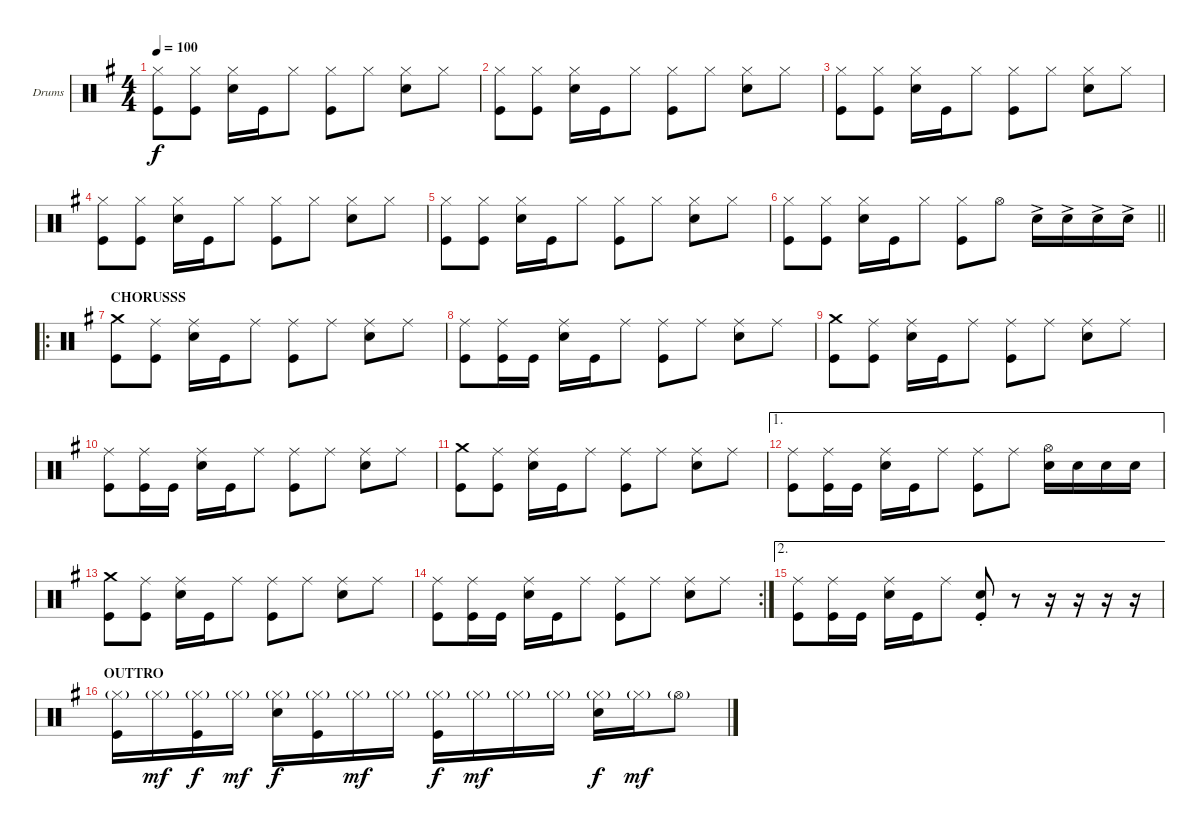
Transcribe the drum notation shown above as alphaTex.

\bracketExtendMode groupsimilarinstruments
\firstSystemTrackNameOrientation horizontal
\otherSystemsTrackNameOrientation horizontal
\track ("Drumkit" "Drums") {instrument percussion}
\staff {score}
\articulation defaults
\ts (4 4)
\tempo 100
\clef neutral
\ks eminor
("Hi-Hat (closed)" "Kick (hit)").8{dy f} ("Hi-Hat (closed)" "Kick (hit)").8 ("Hi-Hat (closed)" "Snare (hit) 2").16 "Kick (hit)".16 "Hi-Hat (closed)".8 ("Hi-Hat (closed)" "Kick (hit)").8 "Hi-Hat (closed)".8 ("Hi-Hat (closed)" "Snare (hit) 2").8 "Hi-Hat (closed)".8 |
("Hi-Hat (closed)" "Kick (hit)").8 ("Hi-Hat (closed)" "Kick (hit)").8 ("Hi-Hat (closed)" "Snare (hit) 2").16 "Kick (hit)".16 "Hi-Hat (closed)".8 ("Hi-Hat (closed)" "Kick (hit)").8 "Hi-Hat (closed)".8 ("Hi-Hat (closed)" "Snare (hit) 2").8 "Hi-Hat (closed)".8 |
("Hi-Hat (closed)" "Kick (hit)").8 ("Hi-Hat (closed)" "Kick (hit)").8 ("Hi-Hat (closed)" "Snare (hit) 2").16 "Kick (hit)".16 "Hi-Hat (closed)".8 ("Hi-Hat (closed)" "Kick (hit)").8 "Hi-Hat (closed)".8 ("Hi-Hat (closed)" "Snare (hit) 2").8 "Hi-Hat (closed)".8 |
("Hi-Hat (closed)" "Kick (hit)").8 ("Hi-Hat (closed)" "Kick (hit)").8 ("Hi-Hat (closed)" "Snare (hit) 2").16 "Kick (hit)".16 "Hi-Hat (closed)".8 ("Hi-Hat (closed)" "Kick (hit)").8 "Hi-Hat (closed)".8 ("Hi-Hat (closed)" "Snare (hit) 2").8 "Hi-Hat (closed)".8 |
("Hi-Hat (closed)" "Kick (hit)").8 ("Hi-Hat (closed)" "Kick (hit)").8 ("Hi-Hat (closed)" "Snare (hit) 2").16 "Kick (hit)".16 "Hi-Hat (closed)".8 ("Hi-Hat (closed)" "Kick (hit)").8 "Hi-Hat (closed)".8 ("Hi-Hat (closed)" "Snare (hit) 2").8 "Hi-Hat (closed)".8 |
\barLineRight lightlight
("Hi-Hat (closed)" "Kick (hit)").8 ("Hi-Hat (closed)" "Kick (hit)").8 ("Hi-Hat (closed)" "Snare (hit) 2").16 "Kick (hit)".16 "Hi-Hat (closed)".8 ("Hi-Hat (closed)" "Kick (hit)").8 "Hi-Hat (open)".8 "Snare (hit) 2"{ac}.16 "Snare (hit) 2"{ac}.16 "Snare (hit) 2"{ac}.16 "Snare (hit) 2"{ac}.16 |
\ro
\section ("" "CHORUSSS")
("Crash medium (hit)" "Kick (hit)").8 ("Ride (middle)" "Kick (hit)").8 ("Ride (middle)" "Snare (hit) 2").16 "Kick (hit)".16 "Ride (middle)".8 ("Ride (middle)" "Kick (hit)").8 "Ride (middle)".8 ("Ride (middle)" "Snare (hit) 2").8 "Ride (middle)".8 |
("Ride (middle)" "Kick (hit)").8 ("Ride (middle)" "Kick (hit)").16 "Kick (hit)".16 ("Ride (middle)" "Snare (hit) 2").16 "Kick (hit)".16 "Ride (middle)".8 ("Ride (middle)" "Kick (hit)").8 "Ride (middle)".8 ("Ride (middle)" "Snare (hit) 2").8 "Ride (middle)".8 |
("Crash medium (hit)" "Kick (hit)").8 ("Ride (middle)" "Kick (hit)").8 ("Ride (middle)" "Snare (hit) 2").16 "Kick (hit)".16 "Ride (middle)".8 ("Ride (middle)" "Kick (hit)").8 "Ride (middle)".8 ("Ride (middle)" "Snare (hit) 2").8 "Ride (middle)".8 |
("Ride (middle)" "Kick (hit)").8 ("Ride (middle)" "Kick (hit)").16 "Kick (hit)".16 ("Ride (middle)" "Snare (hit) 2").16 "Kick (hit)".16 "Ride (middle)".8 ("Ride (middle)" "Kick (hit)").8 "Ride (middle)".8 ("Ride (middle)" "Snare (hit) 2").8 "Ride (middle)".8 |
("Crash medium (hit)" "Kick (hit)").8 ("Ride (middle)" "Kick (hit)").8 ("Ride (middle)" "Snare (hit) 2").16 "Kick (hit)".16 "Ride (middle)".8 ("Ride (middle)" "Kick (hit)").8 "Ride (middle)".8 ("Ride (middle)" "Snare (hit) 2").8 "Ride (middle)".8 |
\ae 1
("Ride (middle)" "Kick (hit)").8 ("Ride (middle)" "Kick (hit)").16 "Kick (hit)".16 ("Ride (middle)" "Snare (hit) 2").16 "Kick (hit)".16 "Ride (middle)".8 ("Ride (middle)" "Kick (hit)").8 "Ride (middle)".8 ("Hi-Hat (open)" "Snare (hit) 2").16 "Snare (hit) 2".16 "Snare (hit) 2".16 "Snare (hit) 2".16 |
("Crash medium (hit)" "Kick (hit)").8 ("Ride (middle)" "Kick (hit)").8 ("Ride (middle)" "Snare (hit) 2").16 "Kick (hit)".16 "Ride (middle)".8 ("Ride (middle)" "Kick (hit)").8 "Ride (middle)".8 ("Ride (middle)" "Snare (hit) 2").8 "Ride (middle)".8 |
\rc 2
("Ride (middle)" "Kick (hit)").8 ("Ride (middle)" "Kick (hit)").16 "Kick (hit)".16 ("Ride (middle)" "Snare (hit) 2").16 "Kick (hit)".16 "Ride (middle)".8 ("Ride (middle)" "Kick (hit)").8 "Ride (middle)".8 ("Ride (middle)" "Snare (hit) 2").8 "Ride (middle)".8 |
\ae 2
("Ride (middle)" "Kick (hit)").8 ("Ride (middle)" "Kick (hit)").16 "Kick (hit)".16 ("Ride (middle)" "Snare (hit) 2").16 "Kick (hit)".16 "Ride (middle)".8 ("Snare (hit) 2"{st} "Kick (hit)").8 r.8 r.16 r.16 r.16 r.16 |
\section ("" "OUTTRO")
("Hi-Hat (closed)"{g} "Kick (hit)").16 "Hi-Hat (closed)"{g}.16{dy mf} ("Hi-Hat (closed)"{g} "Kick (hit)").16{dy f} "Hi-Hat (closed)"{g}.16{dy mf} ("Hi-Hat (closed)"{g} "Snare (hit) 2").16{dy f} ("Hi-Hat (closed)"{g} "Kick (hit)").16 "Hi-Hat (closed)"{g}.16{dy mf} "Hi-Hat (closed)"{g}.16 ("Hi-Hat (closed)"{g} "Kick (hit)").16{dy f} "Hi-Hat (closed)"{g}.16{dy mf} "Hi-Hat (closed)"{g}.16 "Hi-Hat (closed)"{g}.16 ("Hi-Hat (closed)"{g} "Snare (hit) 2").16{dy f} "Hi-Hat (closed)"{g}.16{dy mf} "Hi-Hat (open)"{g}.8
